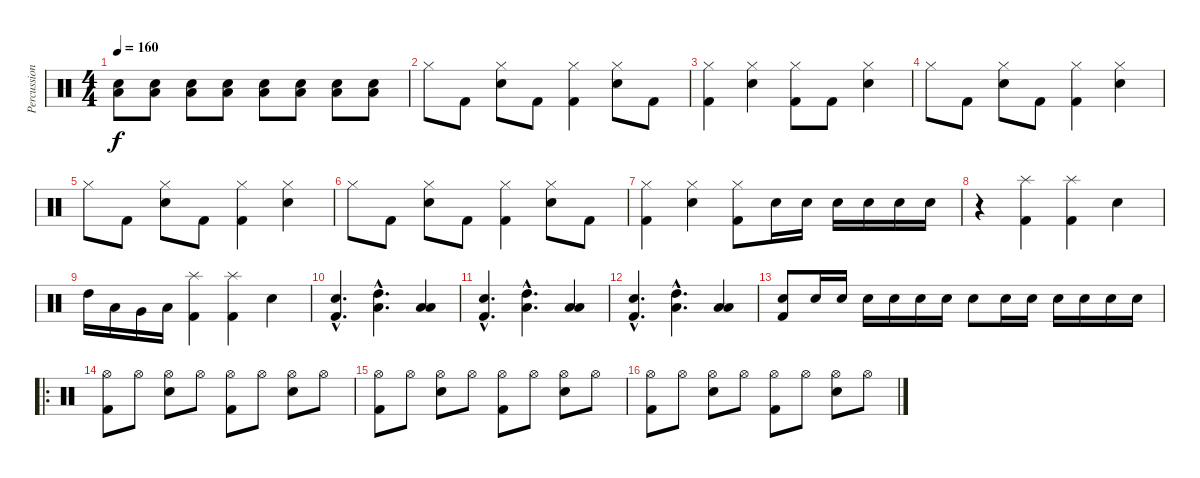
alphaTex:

\track ("Percussions" "Percussion") {instrument percussion}
\staff {score}
\articulation defaults
\ts (4 4)
\tempo 160
\clef neutral
\ks c
("Snare (hit) 2" "Low Tom (hit)").8{dy f} ("Snare (hit) 2" "Low Tom (hit)").8 ("Snare (hit) 2" "Low Tom (hit)").8 ("Snare (hit) 2" "Low Tom (hit)").8 ("Snare (hit) 2" "Low Floor Tom (hit)").8 ("Snare (hit) 2" "Low Floor Tom (hit)").8 ("Snare (hit) 2" "Low Floor Tom (hit)").8 ("Snare (hit) 2" "Low Floor Tom (hit)").8 |
"Hi-Hat (closed)".8 "Kick (hit) 2".8 ("Hi-Hat (closed)" "Snare (hit) 2").8 "Kick (hit) 2".8 ("Hi-Hat (closed)" "Kick (hit) 2").4 ("Hi-Hat (closed)" "Snare (hit) 2").8 "Kick (hit) 2".8 |
("Hi-Hat (closed)" "Kick (hit) 2").4 ("Hi-Hat (closed)" "Snare (hit) 2").4 ("Hi-Hat (closed)" "Kick (hit) 2").8 "Kick (hit) 2".8 ("Hi-Hat (closed)" "Snare (hit) 2").4 |
"Hi-Hat (closed)".8 "Kick (hit) 2".8 ("Hi-Hat (closed)" "Snare (hit) 2").8 "Kick (hit) 2".8 ("Hi-Hat (closed)" "Kick (hit) 2").4 ("Hi-Hat (closed)" "Snare (hit) 2").4 |
"Hi-Hat (closed)".8 "Kick (hit) 2".8 ("Hi-Hat (closed)" "Snare (hit) 2").8 "Kick (hit) 2".8 ("Hi-Hat (closed)" "Kick (hit) 2").4 ("Hi-Hat (closed)" "Snare (hit) 2").4 |
"Hi-Hat (closed)".8 "Kick (hit) 2".8 ("Hi-Hat (closed)" "Snare (hit) 2").8 "Kick (hit) 2".8 ("Hi-Hat (closed)" "Kick (hit) 2").4 ("Hi-Hat (closed)" "Snare (hit) 2").8 "Kick (hit) 2".8 |
("Hi-Hat (closed)" "Kick (hit) 2").4 ("Hi-Hat (closed)" "Snare (hit) 2").4 ("Hi-Hat (closed)" "Kick (hit) 2").8 "Snare (hit) 2".16 "Snare (hit) 2".16 "Snare (hit) 2".16 "Snare (hit) 2".16 "Snare (hit) 2".16 "Snare (hit) 2".16 |
r.4 ("Splash (hit)" "Kick (hit) 2").4 ("Splash (hit)" "Kick (hit) 2").4 "Snare (hit) 2".4 |
"High Tom (hit)".16 "Low Tom (hit)".16 "Very Low Tom (hit)".16 "Low Floor Tom (hit)".16 ("Splash (hit)" "Kick (hit) 2").4 ("Splash (hit)" "Kick (hit) 2").4 "Snare (hit) 2".4 |
("Snare (hit) 2"{hac} "Kick (hit) 2"{hac}).4{d} ("Low Floor Tom (hit)"{hac} "High Tom (hit)"{hac}).4{d} ("Low Floor Tom (hit)" "Low Tom (hit)").4 |
("Snare (hit) 2"{hac} "Kick (hit) 2"{hac}).4{d} ("Low Floor Tom (hit)"{hac} "High Tom (hit)"{hac}).4{d} ("Low Floor Tom (hit)" "Low Tom (hit)").4 |
("Snare (hit) 2"{hac} "Kick (hit) 2"{hac}).4{d} ("Low Floor Tom (hit)"{hac} "High Tom (hit)"{hac}).4{d} ("Low Floor Tom (hit)" "Low Tom (hit)").4 |
("Snare (hit) 2" "Kick (hit) 2").8 "Snare (hit) 2".16 "Snare (hit) 2".16 "Snare (hit) 2".16 "Snare (hit) 2".16 "Snare (hit) 2".16 "Snare (hit) 2".16 "Snare (hit) 2".8 "Snare (hit) 2".16 "Snare (hit) 2".16 "Snare (hit) 2".16 "Snare (hit) 2".16 "Snare (hit) 2".16 "Snare (hit) 2".16 |
\ro
("Hi-Hat (open)" "Kick (hit) 2").8 "Hi-Hat (open)".8 ("Hi-Hat (open)" "Snare (hit) 2").8 "Hi-Hat (open)".8 ("Hi-Hat (open)" "Kick (hit) 2").8 "Hi-Hat (open)".8 ("Hi-Hat (open)" "Snare (hit) 2").8 "Hi-Hat (open)".8 |
("Hi-Hat (open)" "Kick (hit) 2").8 "Hi-Hat (open)".8 ("Hi-Hat (open)" "Snare (hit) 2").8 "Hi-Hat (open)".8 ("Hi-Hat (open)" "Kick (hit) 2").8 "Hi-Hat (open)".8 ("Hi-Hat (open)" "Snare (hit) 2").8 "Hi-Hat (open)".8 |
("Hi-Hat (open)" "Kick (hit) 2").8 "Hi-Hat (open)".8 ("Hi-Hat (open)" "Snare (hit) 2").8 "Hi-Hat (open)".8 ("Hi-Hat (open)" "Kick (hit) 2").8 "Hi-Hat (open)".8 ("Hi-Hat (open)" "Snare (hit) 2").8 "Hi-Hat (open)".8
